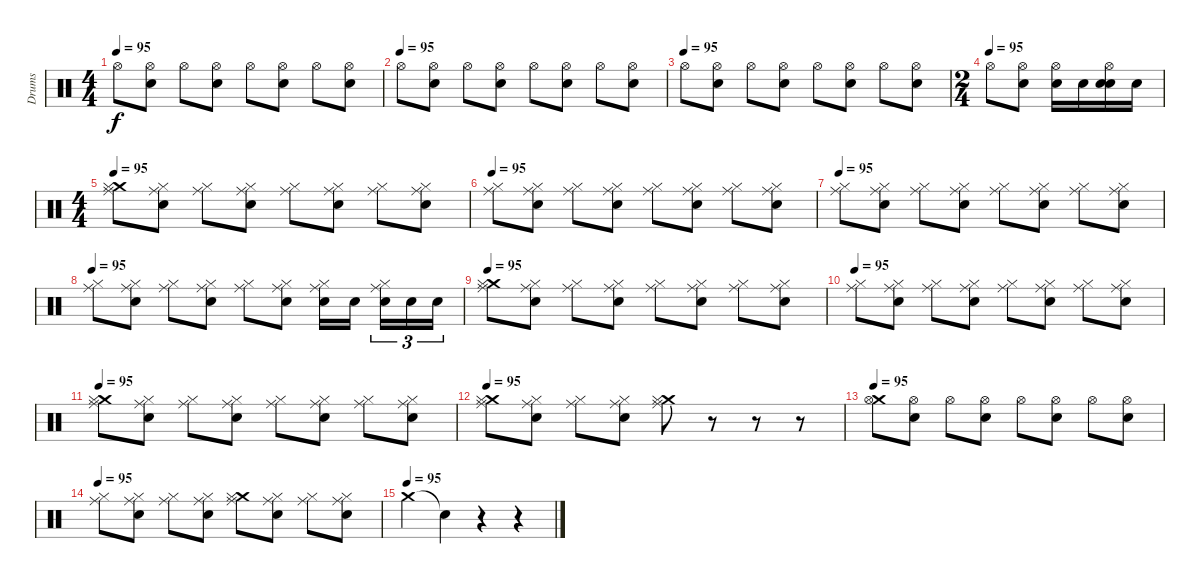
\track ("Drums" "Drums") {instrument percussion}
\staff {score}
\articulation defaults
\ts (4 4)
\tempo 95
\clef neutral
\ks c "Hi-Hat (open)".8{dy f}
("Hi-Hat (open)" "Snare (hit) 2").8 "Hi-Hat (open)".8 ("Hi-Hat (open)" "Snare (hit) 2").8 "Hi-Hat (open)".8 ("Hi-Hat (open)" "Snare (hit) 2").8 "Hi-Hat (open)".8 ("Hi-Hat (open)" "Snare (hit) 2").8 |
\tempo (95)
"Hi-Hat (open)".8 ("Hi-Hat (open)" "Snare (hit) 2").8 "Hi-Hat (open)".8 ("Hi-Hat (open)" "Snare (hit) 2").8 "Hi-Hat (open)".8 ("Hi-Hat (open)" "Snare (hit) 2").8 "Hi-Hat (open)".8 ("Hi-Hat (open)" "Snare (hit) 2").8 |
\tempo (95)
"Hi-Hat (open)".8 ("Hi-Hat (open)" "Snare (hit) 2").8 "Hi-Hat (open)".8 ("Hi-Hat (open)" "Snare (hit) 2").8 "Hi-Hat (open)".8 ("Hi-Hat (open)" "Snare (hit) 2").8 "Hi-Hat (open)".8 ("Hi-Hat (open)" "Snare (hit) 2").8 |
\ts (2 4)
\tempo (95)
"Hi-Hat (open)".8 ("Hi-Hat (open)" "Snare (hit) 2").8 ("Hi-Hat (open)" "Electric Snare (hit)").16 "Electric Snare (hit)".16 ("Hi-Hat (open)" "Snare (hit) 2" "Electric Snare (hit)").16 "Electric Snare (hit)".16 |
\ts (4 4)
\tempo 95
("Crash medium (hit)" "Ride (middle)" "Hi-Hat (closed)").8 ("Ride (middle)" "Snare (hit) 2" "Hi-Hat (closed)").8 ("Ride (middle)" "Hi-Hat (closed)").8 ("Ride (middle)" "Snare (hit) 2" "Hi-Hat (closed)").8 ("Ride (middle)" "Hi-Hat (closed)").8 ("Ride (middle)" "Snare (hit) 2" "Hi-Hat (closed)").8 ("Ride (middle)" "Hi-Hat (closed)").8 ("Ride (middle)" "Snare (hit) 2" "Hi-Hat (closed)").8 |
\tempo 95
("Ride (middle)" "Hi-Hat (closed)").8 ("Ride (middle)" "Snare (hit) 2" "Hi-Hat (closed)").8 ("Ride (middle)" "Hi-Hat (closed)").8 ("Ride (middle)" "Snare (hit) 2" "Hi-Hat (closed)").8 ("Ride (middle)" "Hi-Hat (closed)").8 ("Ride (middle)" "Snare (hit) 2" "Hi-Hat (closed)").8 ("Ride (middle)" "Hi-Hat (closed)").8 ("Ride (middle)" "Snare (hit) 2" "Hi-Hat (closed)").8 |
\tempo 95
("Ride (middle)" "Hi-Hat (closed)").8 ("Ride (middle)" "Snare (hit) 2" "Hi-Hat (closed)").8 ("Ride (middle)" "Hi-Hat (closed)").8 ("Ride (middle)" "Snare (hit) 2" "Hi-Hat (closed)").8 ("Ride (middle)" "Hi-Hat (closed)").8 ("Ride (middle)" "Snare (hit) 2" "Hi-Hat (closed)").8 ("Ride (middle)" "Hi-Hat (closed)").8 ("Ride (middle)" "Snare (hit) 2" "Hi-Hat (closed)").8 |
\tempo 95
("Ride (middle)" "Hi-Hat (closed)").8 ("Ride (middle)" "Snare (hit) 2" "Hi-Hat (closed)").8 ("Ride (middle)" "Hi-Hat (closed)").8 ("Ride (middle)" "Snare (hit) 2" "Hi-Hat (closed)").8 ("Ride (middle)" "Hi-Hat (closed)").8 ("Ride (middle)" "Snare (hit) 2" "Hi-Hat (closed)").8 ("Ride (middle)" "Snare (hit) 2" "Hi-Hat (closed)").16 "Snare (hit) 2".16 ("Ride (middle)" "Snare (hit) 2" "Hi-Hat (closed)").16{tu (3 2)} "Snare (hit) 2".16{tu (3 2)} "Snare (hit) 2".16{tu (3 2)} |
\tempo 95
("Crash medium (hit)" "Ride (middle)" "Hi-Hat (closed)").8 ("Ride (middle)" "Snare (hit) 2" "Hi-Hat (closed)").8 ("Ride (middle)" "Hi-Hat (closed)").8 ("Ride (middle)" "Snare (hit) 2" "Hi-Hat (closed)").8 ("Ride (middle)" "Hi-Hat (closed)").8 ("Ride (middle)" "Snare (hit) 2" "Hi-Hat (closed)").8 ("Ride (middle)" "Hi-Hat (closed)").8 ("Ride (middle)" "Snare (hit) 2" "Hi-Hat (closed)").8 |
\tempo 95
("Ride (middle)" "Hi-Hat (closed)").8 ("Ride (middle)" "Snare (hit) 2" "Hi-Hat (closed)").8 ("Ride (middle)" "Hi-Hat (closed)").8 ("Ride (middle)" "Snare (hit) 2" "Hi-Hat (closed)").8 ("Ride (middle)" "Hi-Hat (closed)").8 ("Ride (middle)" "Snare (hit) 2" "Hi-Hat (closed)").8 ("Ride (middle)" "Hi-Hat (closed)").8 ("Ride (middle)" "Snare (hit) 2" "Hi-Hat (closed)").8 |
\tempo 95
("Crash medium (hit)" "Ride (middle)" "Hi-Hat (closed)").8 ("Ride (middle)" "Snare (hit) 2" "Hi-Hat (closed)").8 ("Ride (middle)" "Hi-Hat (closed)").8 ("Ride (middle)" "Snare (hit) 2" "Hi-Hat (closed)").8 ("Ride (middle)" "Hi-Hat (closed)").8 ("Ride (middle)" "Snare (hit) 2" "Hi-Hat (closed)").8 ("Ride (middle)" "Hi-Hat (closed)").8 ("Ride (middle)" "Snare (hit) 2" "Hi-Hat (closed)").8 |
\tempo 95
("Crash medium (hit)" "Ride (middle)" "Hi-Hat (closed)").8 ("Ride (middle)" "Snare (hit) 2" "Hi-Hat (closed)").8 ("Ride (middle)" "Hi-Hat (closed)").8 ("Ride (middle)" "Snare (hit) 2" "Hi-Hat (closed)").8 ("Crash medium (hit)" "Ride (middle)" "Hi-Hat (closed)").8 r.8 r.8 r.8 |
\tempo 95
("Crash medium (hit)" "Hi-Hat (open)").8 ("Hi-Hat (open)" "Snare (hit) 2").8 "Hi-Hat (open)".8 ("Hi-Hat (open)" "Snare (hit) 2").8 "Hi-Hat (open)".8 ("Hi-Hat (open)" "Snare (hit) 2").8 "Hi-Hat (open)".8 ("Hi-Hat (open)" "Snare (hit) 2").8 |
\tempo 95
("Ride (middle)" "Hi-Hat (closed)").8 ("Ride (middle)" "Snare (hit) 2" "Hi-Hat (closed)").8 ("Ride (middle)" "Hi-Hat (closed)").8 ("Ride (middle)" "Snare (hit) 2" "Hi-Hat (closed)").8 ("Crash medium (hit)" "Ride (middle)" "Hi-Hat (closed)").8 ("Ride (middle)" "Snare (hit) 2" "Hi-Hat (closed)").8 ("Ride (middle)" "Hi-Hat (closed)").8 ("Ride (middle)" "Snare (hit) 2" "Hi-Hat (closed)").8 |
\tempo (95)
"Crash medium (hit)".4 "Snare (hit)"{t}.4 r.4 r.4
